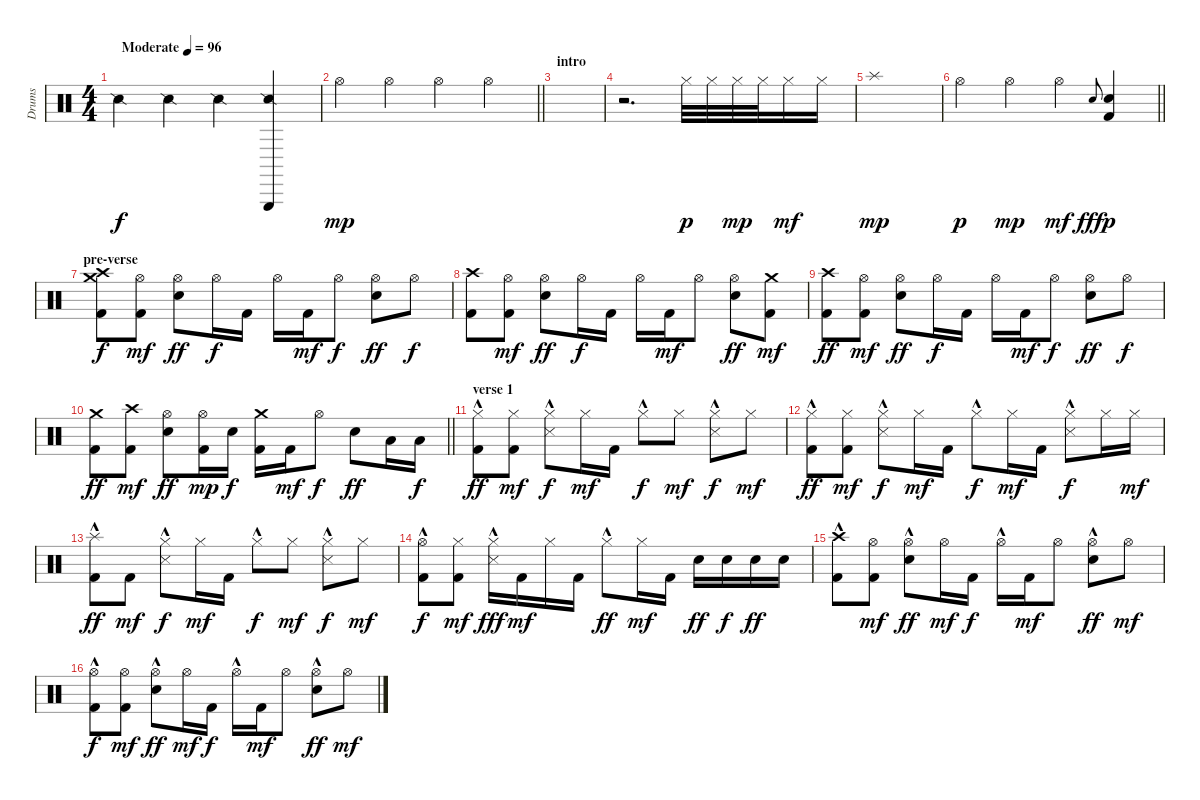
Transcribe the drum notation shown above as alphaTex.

\track ("Drums" "Drums") {instrument percussion}
\staff {score}
\articulation defaults
\ts (4 4)
\tempo (96 "Moderate")
\clef neutral
\ks c "Snare (side stick) 2".4{dy f} "Snare (side stick) 2".4 "Snare (side stick) 2".4
("Triangle (hit)" "Snare (side stick) 2").4 |
\barLineRight lightlight "Hi-Hat (open)".4{dy mp} "Hi-Hat (open)".4 "Hi-Hat (open)".4 "Hi-Hat (open)".4
|
\section ("" "intro")
|
r.2{d} "Hi-Hat (closed)".32{dy p} "Hi-Hat (closed)".32 "Hi-Hat (closed)".32{dy mp} "Hi-Hat (closed)".32 "Hi-Hat (closed)".16{dy mf} "Hi-Hat (closed)".16 |
"Splash (hit)".1{dy mp} |
\barLineRight lightlight "Hi-Hat (open)".4{dy p} "Hi-Hat (open)".4{dy mp} "Hi-Hat (open)".4{dy mf} "Electric Snare (hit)".8{gr onbeat dy fff}
("Electric Snare (hit)" "Kick (hit) 2").4{dy p} |
\section ("" "pre-verse")
("Crash medium (hit)" "Crash high (hit)" "Kick (hit) 2").8{dy f} ("Hi-Hat (open)" "Kick (hit) 2").8{dy mf} ("Hi-Hat (open)" "Electric Snare (hit)").8{dy ff} "Hi-Hat (open)".16{dy f} "Kick (hit) 2".16 "Hi-Hat (open)".16 "Kick (hit) 2".16{dy mf} "Hi-Hat (open)".8{dy f} ("Hi-Hat (open)" "Electric Snare (hit)").8{dy ff} "Hi-Hat (open)".8{dy f} |
("Crash high (hit)" "Kick (hit) 2").8 ("Hi-Hat (open)" "Kick (hit) 2").8{dy mf} ("Hi-Hat (open)" "Electric Snare (hit)").8{dy ff} "Hi-Hat (open)".16{dy f} "Kick (hit) 2".16 "Hi-Hat (open)".16 "Kick (hit) 2".16{dy mf} "Hi-Hat (open)".8 ("Hi-Hat (open)" "Electric Snare (hit)").8{dy ff} ("Crash medium (hit)" "Kick (hit) 2").8{dy mf} |
("Crash high (hit)" "Kick (hit) 2").8{dy ff} ("Hi-Hat (open)" "Kick (hit) 2").8{dy mf} ("Hi-Hat (open)" "Electric Snare (hit)").8{dy ff} "Hi-Hat (open)".16{dy f} "Kick (hit) 2".16 "Hi-Hat (open)".16 "Kick (hit) 2".16{dy mf} "Hi-Hat (open)".8{dy f} ("Hi-Hat (open)" "Electric Snare (hit)").8{dy ff} "Hi-Hat (open)".8{dy f} |
\barLineRight lightlight
("Crash medium (hit)" "Kick (hit) 2").8{dy ff} ("Crash high (hit)" "Kick (hit) 2").8{dy mf} ("Hi-Hat (open)" "Electric Snare (hit)").8{dy ff} ("Hi-Hat (open)" "Kick (hit) 2").16{dy mp} "Electric Snare (hit)".16{dy f} ("Crash medium (hit)" "Kick (hit) 2").16 "Kick (hit) 2".16{dy mf} "Hi-Hat (open)".8{dy f} "Electric Snare (hit)".8{dy ff} "Low Tom (hit)".16 "Low Tom (hit)".16{dy f} |
\section ("" "verse 1")
("Hi-Hat (closed)"{hac} "Kick (hit) 2").8{dy ff} ("Hi-Hat (closed)" "Kick (hit) 2").8{dy mf} ("Hi-Hat (closed)"{hac} "Snare (side stick) 3").8{dy f} "Hi-Hat (closed)".16{dy mf} "Kick (hit) 2".16 "Hi-Hat (closed)"{hac}.8{dy f} "Hi-Hat (closed)".8{dy mf} ("Hi-Hat (closed)"{hac} "Snare (side stick) 3").8{dy f} "Hi-Hat (closed)".8{dy mf} |
("Hi-Hat (closed)"{hac} "Kick (hit) 2").8{dy ff} ("Hi-Hat (closed)" "Kick (hit) 2").8{dy mf} ("Hi-Hat (closed)"{hac} "Snare (side stick) 3").8{dy f} "Hi-Hat (closed)".16{dy mf} "Kick (hit) 2".16 "Hi-Hat (closed)"{hac}.8{dy f} "Hi-Hat (closed)".16{dy mf} "Kick (hit) 2".16 ("Hi-Hat (closed)"{hac} "Snare (side stick) 3").8{dy f} "Hi-Hat (closed)".16 "Hi-Hat (closed)".16{dy mf} |
("Splash (hit)"{hac} "Kick (hit) 2").8{dy ff} "Kick (hit) 2".8{dy mf} ("Hi-Hat (closed)"{hac} "Snare (side stick) 3").8{dy f} "Hi-Hat (closed)".16{dy mf} "Kick (hit) 2".16 "Hi-Hat (closed)"{hac}.8{dy f} "Hi-Hat (closed)".8{dy mf} ("Hi-Hat (closed)"{hac} "Snare (side stick) 3").8{dy f} "Hi-Hat (closed)".8{dy mf} |
("Hi-Hat (open)"{hac} "Kick (hit) 2").8{dy f} ("Hi-Hat (closed)" "Kick (hit) 2").8{dy mf} ("Hi-Hat (closed)"{hac} "Snare (side stick) 3").16{dy fff} "Kick (hit) 2".16{dy mf} "Hi-Hat (closed)".16 "Kick (hit) 2".16 "Hi-Hat (closed)"{hac}.8{dy ff} "Hi-Hat (closed)".16{dy mf} "Kick (hit) 2".16 "Electric Snare (hit)".16{dy ff} "Electric Snare (hit)".16{dy f} "Electric Snare (hit)".16{dy ff} "Electric Snare (hit)".16 |
("Crash high (hit)"{hac} "Kick (hit) 2").8 ("Hi-Hat (open)" "Kick (hit) 2").8{dy mf} ("Hi-Hat (open)"{hac} "Electric Snare (hit)").8{dy ff} "Hi-Hat (open)".16{dy mf} "Kick (hit) 2".16{dy f} "Hi-Hat (open)"{hac}.16 "Kick (hit) 2".16{dy mf} "Hi-Hat (open)".8 ("Hi-Hat (open)"{hac} "Electric Snare (hit)").8{dy ff} "Hi-Hat (open)".8{dy mf} |
("Hi-Hat (open)"{hac} "Kick (hit) 2").8{dy f} ("Hi-Hat (open)" "Kick (hit) 2").8{dy mf} ("Hi-Hat (open)"{hac} "Electric Snare (hit)").8{dy ff} "Hi-Hat (open)".16{dy mf} "Kick (hit) 2".16{dy f} "Hi-Hat (open)"{hac}.16 "Kick (hit) 2".16{dy mf} "Hi-Hat (open)".8 ("Hi-Hat (open)"{hac} "Electric Snare (hit)").8{dy ff} "Hi-Hat (open)".8{dy mf}
